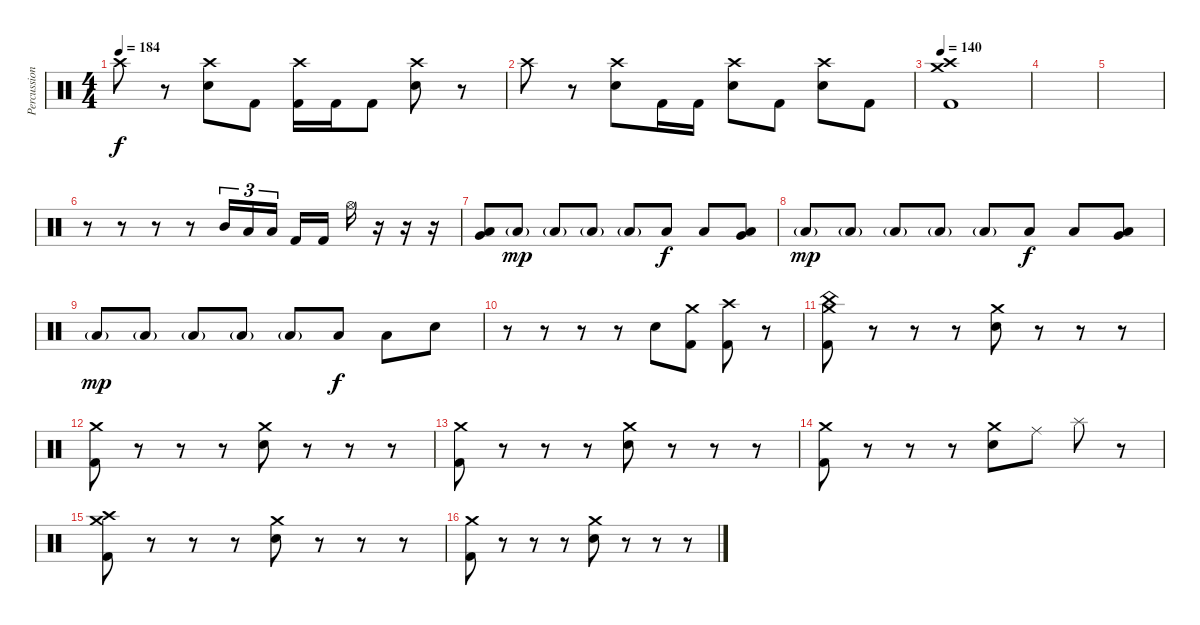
\track ("Percussion" "Percussion") {instrument percussion}
\staff {score}
\articulation defaults
\ts (4 4)
\tempo 184
\clef neutral
\ks c "Crash high (hit)".8{dy f}
r.8 ("Crash high (hit)" "Snare (hit) 2").8 "Kick (hit) 2".8 ("Crash high (hit)" "Kick (hit) 2").16 "Kick (hit) 2".16 "Kick (hit) 2".8 ("Crash high (hit)" "Snare (hit) 2").8 r.8 |
"Crash high (hit)".8 r.8 ("Crash high (hit)" "Snare (hit) 2").8 "Kick (hit) 2".16 "Kick (hit) 2".16 ("Crash high (hit)" "Snare (hit) 2").8 "Kick (hit) 2".8 ("Crash high (hit)" "Snare (hit) 2").8 "Kick (hit) 2".8 |
\tempo 140
("Crash high (hit)" "Crash medium (hit)" "Kick (hit) 2").1 |
|
|
r.8 r.8 r.8 r.8 "Mid Tom (hit)".16{tu (3 2)} "Low Tom (hit)".16{tu (3 2)} "Low Tom (hit)".16{tu (3 2) beam splitsecondary} "Kick (hit) 2".16 "Kick (hit) 2".16 "Hi-Hat (open)".16 r.16 r.16 r.16 |
("Very Low Tom (hit)" "Low Floor Tom (hit)").8 "Low Floor Tom (hit)"{g}.8{dy mp} "Low Floor Tom (hit)"{g}.8 "Low Floor Tom (hit)"{g}.8 "Low Floor Tom (hit)"{g}.8 "Low Floor Tom (hit)".8{dy f} "Low Floor Tom (hit)".8 ("Very Low Tom (hit)" "Low Floor Tom (hit)").8 |
"Low Floor Tom (hit)"{g}.8{dy mp} "Low Floor Tom (hit)"{g}.8 "Low Floor Tom (hit)"{g}.8 "Low Floor Tom (hit)"{g}.8 "Low Floor Tom (hit)"{g}.8 "Low Floor Tom (hit)".8{dy f} "Low Floor Tom (hit)".8 ("Very Low Tom (hit)" "Low Floor Tom (hit)").8 |
"Low Floor Tom (hit)"{g}.8{dy mp} "Low Floor Tom (hit)"{g}.8 "Low Floor Tom (hit)"{g}.8 "Low Floor Tom (hit)"{g}.8 "Low Floor Tom (hit)"{g}.8 "Low Floor Tom (hit)".8{dy f} "Low Floor Tom (hit)".8 "Snare (hit) 2".8 |
r.8 r.8 r.8 r.8 "Snare (hit) 2".8 ("Crash medium (hit)" "Kick (hit) 2").8 ("Crash high (hit)" "Kick (hit) 2").8 r.8 |
("China (hit)" "Crash medium (hit)" "Kick (hit) 2").8 r.8 r.8 r.8 ("Crash medium (hit)" "Snare (hit) 2").8 r.8 r.8 r.8 |
("Crash medium (hit)" "Kick (hit) 2").8 r.8 r.8 r.8 ("Crash medium (hit)" "Snare (hit) 2").8 r.8 r.8 r.8 |
("Crash medium (hit)" "Kick (hit) 2").8 r.8 r.8 r.8 ("Crash medium (hit)" "Snare (hit) 2").8 r.8 r.8 r.8 |
("Crash medium (hit)" "Kick (hit) 2").8 r.8 r.8 r.8 ("Crash medium (hit)" "Snare (hit) 2").8 "Ride (middle)".8 "Splash (hit)".8 r.8 |
("Crash medium (hit)" "Crash high (hit)" "Kick (hit) 2").8 r.8 r.8 r.8 ("Crash medium (hit)" "Snare (hit) 2").8 r.8 r.8 r.8 |
("Crash medium (hit)" "Kick (hit) 2").8 r.8 r.8 r.8 ("Crash medium (hit)" "Snare (hit) 2").8 r.8 r.8 r.8
